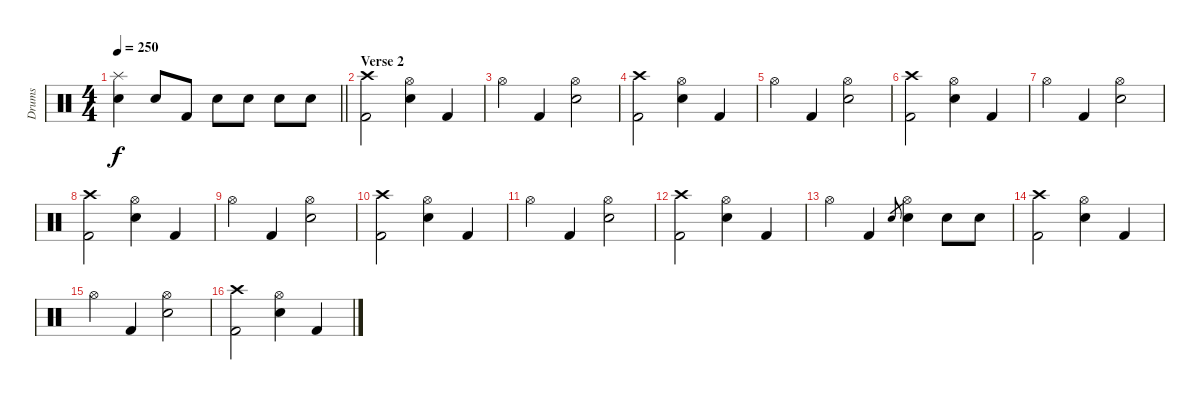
\track ("Drums" "Drums") {instrument percussion}
\staff {score}
\articulation defaults
\ts (4 4)
\tempo 250
\clef neutral
\barLineRight lightlight
\ks c
("Splash (hit)" "Electric Snare (hit)").4{dy f} "Electric Snare (hit)".8 "Kick (hit) 2".8 "Electric Snare (hit)".8 "Electric Snare (hit)".8 "Electric Snare (hit)".8 "Electric Snare (hit)".8 |
\section ("" "Verse 2")
("Crash high (hit)" "Kick (hit) 2").2 ("Hi-Hat (open)" "Electric Snare (hit)").4 "Kick (hit) 2".4 |
"Hi-Hat (open)".4 "Kick (hit) 2".4 ("Hi-Hat (open)" "Electric Snare (hit)").2 |
("Crash high (hit)" "Kick (hit) 2").2 ("Hi-Hat (open)" "Electric Snare (hit)").4 "Kick (hit) 2".4 |
"Hi-Hat (open)".4 "Kick (hit) 2".4 ("Hi-Hat (open)" "Electric Snare (hit)").2 |
("Crash high (hit)" "Kick (hit) 2").2 ("Hi-Hat (open)" "Electric Snare (hit)").4 "Kick (hit) 2".4 |
"Hi-Hat (open)".4 "Kick (hit) 2".4 ("Hi-Hat (open)" "Electric Snare (hit)").2 |
("Crash high (hit)" "Kick (hit) 2").2 ("Hi-Hat (open)" "Electric Snare (hit)").4 "Kick (hit) 2".4 |
"Hi-Hat (open)".4 "Kick (hit) 2".4 ("Hi-Hat (open)" "Electric Snare (hit)").2 |
("Crash high (hit)" "Kick (hit) 2").2 ("Hi-Hat (open)" "Electric Snare (hit)").4 "Kick (hit) 2".4 |
"Hi-Hat (open)".4 "Kick (hit) 2".4 ("Hi-Hat (open)" "Electric Snare (hit)").2 |
("Crash high (hit)" "Kick (hit) 2").2 ("Hi-Hat (open)" "Electric Snare (hit)").4 "Kick (hit) 2".4 |
"Hi-Hat (open)".4 "Kick (hit) 2".4 "Electric Snare (hit)".8{gr} ("Hi-Hat (open)" "Electric Snare (hit)").4 "Electric Snare (hit)".8 "Electric Snare (hit)".8 |
("Crash high (hit)" "Kick (hit) 2").2 ("Hi-Hat (open)" "Electric Snare (hit)").4 "Kick (hit) 2".4 |
"Hi-Hat (open)".4 "Kick (hit) 2".4 ("Hi-Hat (open)" "Electric Snare (hit)").2 |
("Crash high (hit)" "Kick (hit) 2").2 ("Hi-Hat (open)" "Electric Snare (hit)").4 "Kick (hit) 2".4
